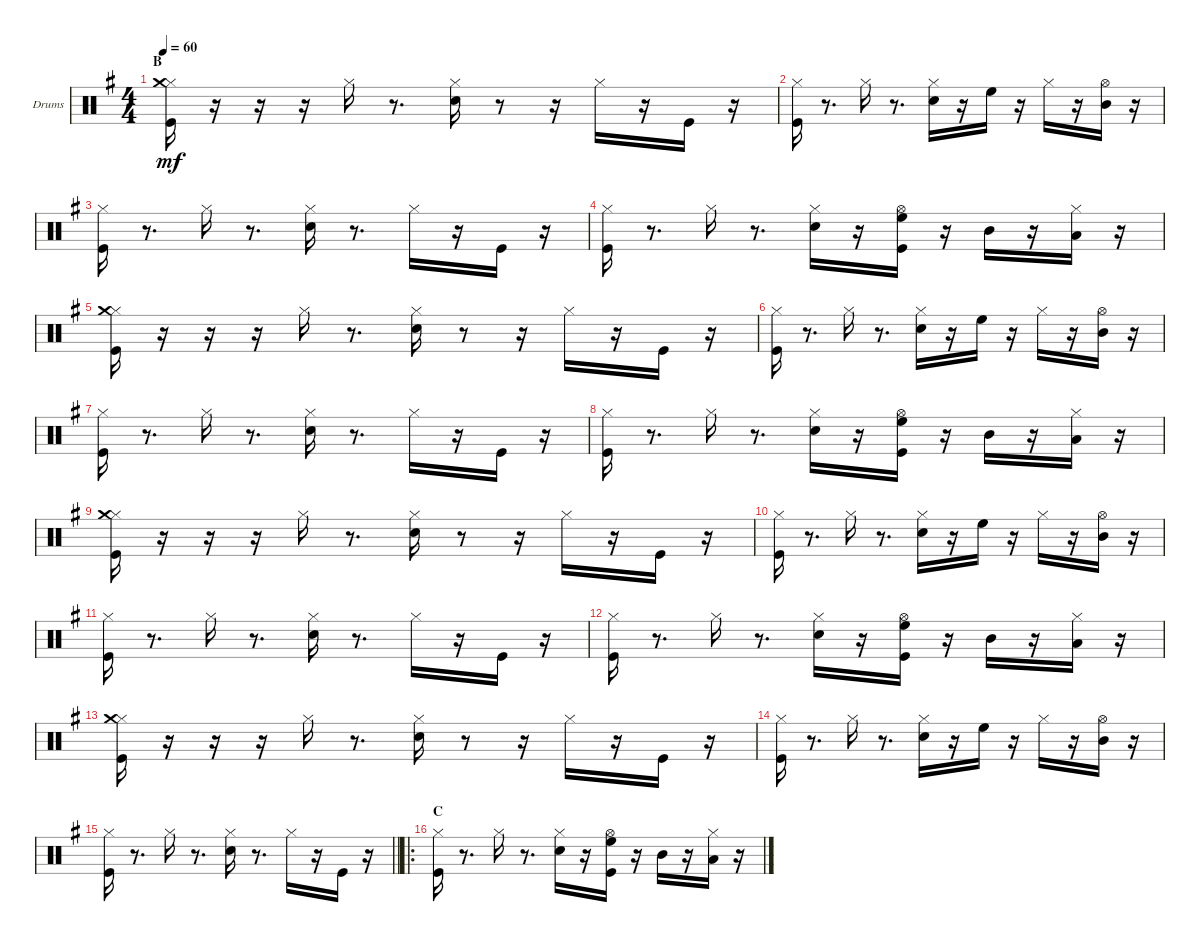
\bracketExtendMode groupsimilarinstruments
\firstSystemTrackNameOrientation horizontal
\otherSystemsTrackNameOrientation horizontal
\track ("Drumkit" "Drums") {instrument percussion}
\staff {score}
\articulation defaults
\ts (4 4)
\section ("" "B")
\tempo 60
\clef neutral
\scale
0.333333
\ks g
("Kick (hit)" "Hi-Hat (closed)" "Crash medium (hit)").16{dy mf} r.16 r.16 r.16 "Hi-Hat (closed)".16 r.8{d} ("Hi-Hat (closed)" "Snare (hit) 2").16 r.8 r.16 "Hi-Hat (closed)".16 r.16 "Kick (hit)".16 r.16 |
\scale
0.333333 ("Kick (hit)" "Hi-Hat (closed)").16 r.8{d} "Hi-Hat (closed)".16 r.8{d} ("Hi-Hat (closed)" "Snare (hit) 2").16 r.16 "High Floor Tom (hit)".16 r.16 "Hi-Hat (closed)".16 r.16 ("Hi-Hat (open)" "Mid Tom (hit)").16 r.16 |
\scale
0.333333 ("Kick (hit)" "Hi-Hat (closed)").16 r.8{d} "Hi-Hat (closed)".16 r.8{d} ("Hi-Hat (closed)" "Snare (hit) 2").16 r.8{d} "Hi-Hat (closed)".16 r.16 "Kick (hit)".16 r.16 |
\scale
0.333333 ("Kick (hit)" "Hi-Hat (closed)").16 r.8{d} "Hi-Hat (closed)".16 r.8{d} ("Hi-Hat (closed)" "Snare (hit) 2").16 r.16 ("Kick (hit)" "Hi-Hat (open)" "High Floor Tom (hit)").16 r.16 "Mid Tom (hit)".16 r.16 ("Hi-Hat (closed)" "Low Tom (hit)").16 r.16 |
\scale
0.333333 ("Kick (hit)" "Hi-Hat (closed)" "Crash medium (hit)").16 r.16 r.16 r.16 "Hi-Hat (closed)".16 r.8{d} ("Hi-Hat (closed)" "Snare (hit) 2").16 r.8 r.16 "Hi-Hat (closed)".16 r.16 "Kick (hit)".16 r.16 |
\scale
0.333333 ("Kick (hit)" "Hi-Hat (closed)").16 r.8{d} "Hi-Hat (closed)".16 r.8{d} ("Hi-Hat (closed)" "Snare (hit) 2").16 r.16 "High Floor Tom (hit)".16 r.16 "Hi-Hat (closed)".16 r.16 ("Hi-Hat (open)" "Mid Tom (hit)").16 r.16 |
\scale
0.333333 ("Kick (hit)" "Hi-Hat (closed)").16 r.8{d} "Hi-Hat (closed)".16 r.8{d} ("Hi-Hat (closed)" "Snare (hit) 2").16 r.8{d} "Hi-Hat (closed)".16 r.16 "Kick (hit)".16 r.16 |
\scale
0.333333 ("Kick (hit)" "Hi-Hat (closed)").16 r.8{d} "Hi-Hat (closed)".16 r.8{d} ("Hi-Hat (closed)" "Snare (hit) 2").16 r.16 ("Kick (hit)" "Hi-Hat (open)" "High Floor Tom (hit)").16 r.16 "Mid Tom (hit)".16 r.16 ("Hi-Hat (closed)" "Low Tom (hit)").16 r.16 |
\scale
0.333333 ("Kick (hit)" "Hi-Hat (closed)" "Crash medium (hit)").16 r.16 r.16 r.16 "Hi-Hat (closed)".16 r.8{d} ("Hi-Hat (closed)" "Snare (hit) 2").16 r.8 r.16 "Hi-Hat (closed)".16 r.16 "Kick (hit)".16 r.16 |
\scale
0.333333 ("Kick (hit)" "Hi-Hat (closed)").16 r.8{d} "Hi-Hat (closed)".16 r.8{d} ("Hi-Hat (closed)" "Snare (hit) 2").16 r.16 "High Floor Tom (hit)".16 r.16 "Hi-Hat (closed)".16 r.16 ("Hi-Hat (open)" "Mid Tom (hit)").16 r.16 |
\scale
0.333333 ("Kick (hit)" "Hi-Hat (closed)").16 r.8{d} "Hi-Hat (closed)".16 r.8{d} ("Hi-Hat (closed)" "Snare (hit) 2").16 r.8{d} "Hi-Hat (closed)".16 r.16 "Kick (hit)".16 r.16 |
\scale
0.333333 ("Kick (hit)" "Hi-Hat (closed)").16 r.8{d} "Hi-Hat (closed)".16 r.8{d} ("Hi-Hat (closed)" "Snare (hit) 2").16 r.16 ("Kick (hit)" "Hi-Hat (open)" "High Floor Tom (hit)").16 r.16 "Mid Tom (hit)".16 r.16 ("Hi-Hat (closed)" "Low Tom (hit)").16 r.16 |
\scale
0.333333 ("Kick (hit)" "Hi-Hat (closed)" "Crash medium (hit)").16 r.16 r.16 r.16 "Hi-Hat (closed)".16 r.8{d} ("Hi-Hat (closed)" "Snare (hit) 2").16 r.8 r.16 "Hi-Hat (closed)".16 r.16 "Kick (hit)".16 r.16 |
\scale
0.333333 ("Kick (hit)" "Hi-Hat (closed)").16 r.8{d} "Hi-Hat (closed)".16 r.8{d} ("Hi-Hat (closed)" "Snare (hit) 2").16 r.16 "High Floor Tom (hit)".16 r.16 "Hi-Hat (closed)".16 r.16 ("Hi-Hat (open)" "Mid Tom (hit)").16 r.16 |
\scale
0.311475
\barLineRight lightlight
("Kick (hit)" "Hi-Hat (closed)").16 r.8{d} "Hi-Hat (closed)".16 r.8{d} ("Hi-Hat (closed)" "Snare (hit) 2").16 r.8{d} "Hi-Hat (closed)".16 r.16 "Kick (hit)".16 r.16 |
\ro
\section ("" "C")
\scale
0.377049 ("Kick (hit)" "Hi-Hat (closed)").16 r.8{d} "Hi-Hat (closed)".16 r.8{d} ("Hi-Hat (closed)" "Snare (hit) 2").16 r.16 ("Kick (hit)" "Hi-Hat (open)" "High Floor Tom (hit)").16 r.16 "Mid Tom (hit)".16 r.16 ("Hi-Hat (closed)" "Low Tom (hit)").16 r.16
